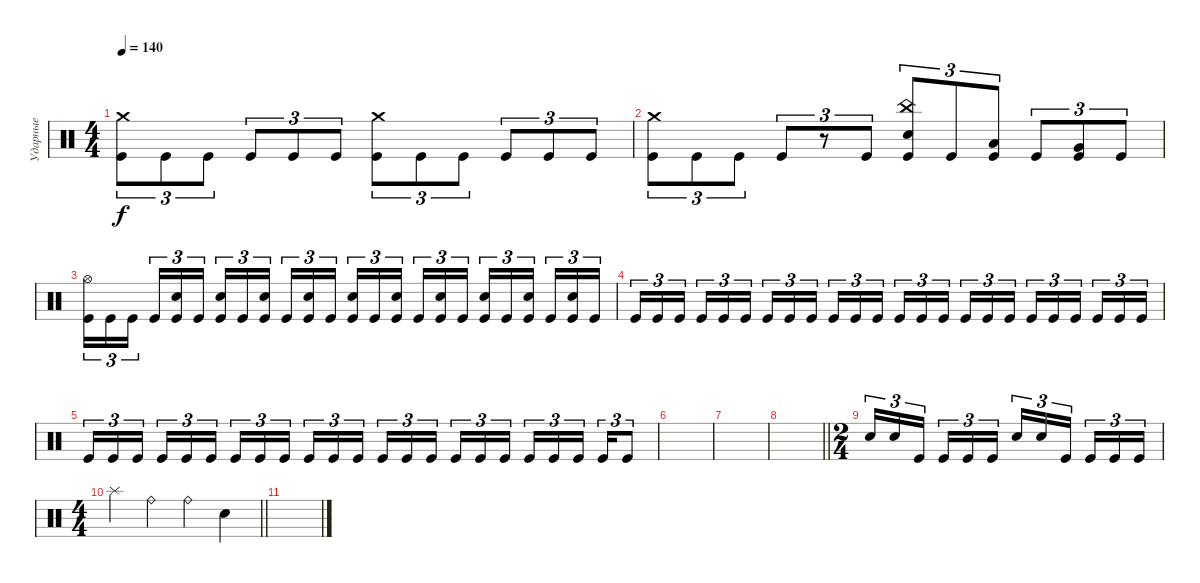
\track ("Ударные" "Ударные") {instrument percussion}
\staff {score}
\articulation defaults
\ts (4 4)
\tempo 140
\clef neutral
\ks c
("Crash medium (hit)" "Kick (hit)").8{tu (3 2) dy f} "Kick (hit)".8{tu (3 2)} "Kick (hit)".8{tu (3 2)} "Kick (hit)".8{tu (3 2)} "Kick (hit)".8{tu (3 2)} "Kick (hit)".8{tu (3 2)} ("Crash medium (hit)" "Kick (hit)").8{tu (3 2)} "Kick (hit)".8{tu (3 2)} "Kick (hit)".8{tu (3 2)} "Kick (hit)".8{tu (3 2)} "Kick (hit)".8{tu (3 2)} "Kick (hit)".8{tu (3 2)} |
("Crash medium (hit)" "Kick (hit)").8{tu (3 2)} "Kick (hit)".8{tu (3 2)} "Kick (hit)".8{tu (3 2)} "Kick (hit)".8{tu (3 2)} r.8{tu (3 2)} "Kick (hit)".8{tu (3 2)} ("China (hit)" "Electric Snare (hit)" "Kick (hit)").8{tu (3 2)} "Kick (hit)".8{tu (3 2)} ("Low Tom (hit)" "Kick (hit)").8{tu (3 2)} "Kick (hit)".8{tu (3 2)} ("Very Low Tom (hit)" "Kick (hit)").8{tu (3 2)} "Kick (hit)".8{tu (3 2)} |
("Hi-Hat (open)" "Kick (hit)").16{tu (3 2)} "Kick (hit)".16{tu (3 2)} "Kick (hit)".16{tu (3 2) beam splitsecondary} "Kick (hit)".16{tu (3 2)} ("Electric Snare (hit)" "Kick (hit)").16{tu (3 2)} "Kick (hit)".16{tu (3 2)} ("Electric Snare (hit)" "Kick (hit)").16{tu (3 2)} "Kick (hit)".16{tu (3 2)} ("Electric Snare (hit)" "Kick (hit)").16{tu (3 2) beam splitsecondary} "Kick (hit)".16{tu (3 2)} ("Electric Snare (hit)" "Kick (hit)").16{tu (3 2)} "Kick (hit)".16{tu (3 2)} ("Electric Snare (hit)" "Kick (hit)").16{tu (3 2)} "Kick (hit)".16{tu (3 2)} ("Electric Snare (hit)" "Kick (hit)").16{tu (3 2) beam splitsecondary} "Kick (hit)".16{tu (3 2)} ("Electric Snare (hit)" "Kick (hit)").16{tu (3 2)} "Kick (hit)".16{tu (3 2)} ("Electric Snare (hit)" "Kick (hit)").16{tu (3 2)} "Kick (hit)".16{tu (3 2)} ("Electric Snare (hit)" "Kick (hit)").16{tu (3 2) beam splitsecondary} "Kick (hit)".16{tu (3 2)} ("Electric Snare (hit)" "Kick (hit)").16{tu (3 2)} "Kick (hit)".16{tu (3 2)} |
"Kick (hit)".16{tu (3 2)} "Kick (hit)".16{tu (3 2)} "Kick (hit)".16{tu (3 2) beam splitsecondary} "Kick (hit)".16{tu (3 2)} "Kick (hit)".16{tu (3 2)} "Kick (hit)".16{tu (3 2)} "Kick (hit)".16{tu (3 2)} "Kick (hit)".16{tu (3 2)} "Kick (hit)".16{tu (3 2) beam splitsecondary} "Kick (hit)".16{tu (3 2)} "Kick (hit)".16{tu (3 2)} "Kick (hit)".16{tu (3 2)} "Kick (hit)".16{tu (3 2)} "Kick (hit)".16{tu (3 2)} "Kick (hit)".16{tu (3 2) beam splitsecondary} "Kick (hit)".16{tu (3 2)} "Kick (hit)".16{tu (3 2)} "Kick (hit)".16{tu (3 2)} "Kick (hit)".16{tu (3 2)} "Kick (hit)".16{tu (3 2)} "Kick (hit)".16{tu (3 2) beam splitsecondary} "Kick (hit)".16{tu (3 2)} "Kick (hit)".16{tu (3 2)} "Kick (hit)".16{tu (3 2)} |
"Kick (hit)".16{tu (3 2)} "Kick (hit)".16{tu (3 2)} "Kick (hit)".16{tu (3 2) beam splitsecondary} "Kick (hit)".16{tu (3 2)} "Kick (hit)".16{tu (3 2)} "Kick (hit)".16{tu (3 2)} "Kick (hit)".16{tu (3 2)} "Kick (hit)".16{tu (3 2)} "Kick (hit)".16{tu (3 2) beam splitsecondary} "Kick (hit)".16{tu (3 2)} "Kick (hit)".16{tu (3 2)} "Kick (hit)".16{tu (3 2)} "Kick (hit)".16{tu (3 2)} "Kick (hit)".16{tu (3 2)} "Kick (hit)".16{tu (3 2) beam splitsecondary} "Kick (hit)".16{tu (3 2)} "Kick (hit)".16{tu (3 2)} "Kick (hit)".16{tu (3 2)} "Kick (hit)".16{tu (3 2)} "Kick (hit)".16{tu (3 2)} "Kick (hit)".16{tu (3 2) beam splitsecondary} "Kick (hit)".16{tu (3 2)} "Kick (hit)".8{tu (3 2)} |
|
|
\barLineRight lightlight
|
\ts (2 4)
\section ("" " ")
"Electric Snare (hit)".16{tu (3 2)} "Electric Snare (hit)".16{tu (3 2)} "Kick (hit)".16{tu (3 2) beam splitsecondary} "Kick (hit)".16{tu (3 2)} "Kick (hit)".16{tu (3 2)} "Kick (hit)".16{tu (3 2)} "Electric Snare (hit)".16{tu (3 2)} "Electric Snare (hit)".16{tu (3 2)} "Kick (hit)".16{tu (3 2) beam splitsecondary} "Kick (hit)".16{tu (3 2)} "Kick (hit)".16{tu (3 2)} "Kick (hit)".16{tu (3 2)} |
\ts (4 4)
\barLineRight lightlight "Splash (hit)".4 "Ride (bell)".4 "Ride (bell)".4 "Electric Snare (hit)".4
|
\section ("" " ")
